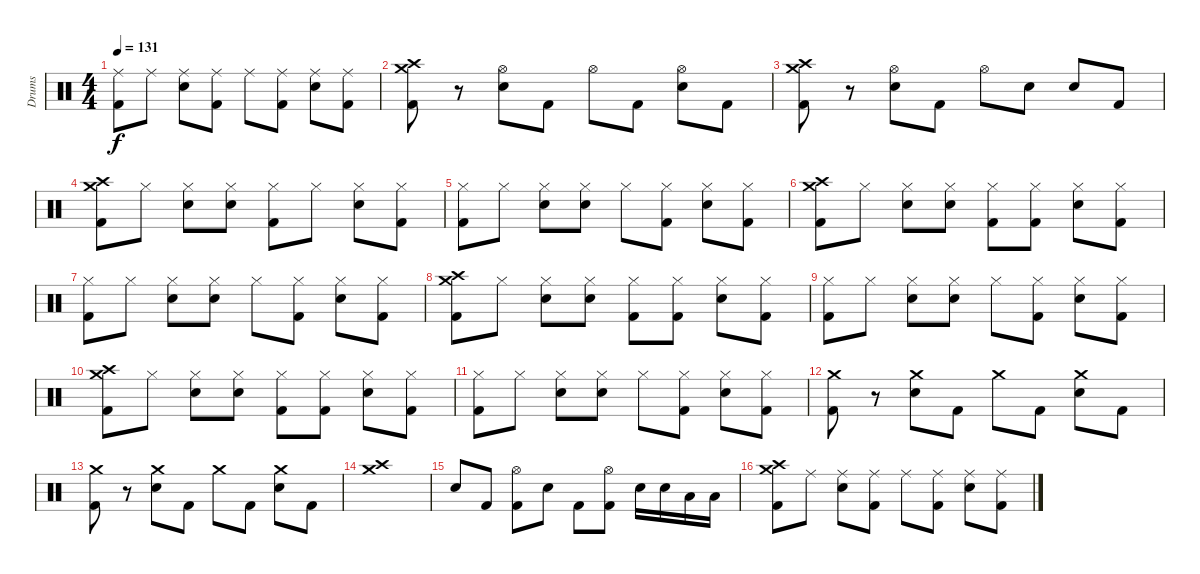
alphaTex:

\track ("Drums" "Drums") {instrument percussion}
\staff {score}
\articulation defaults
\ts (4 4)
\tempo 131
\clef neutral
\ks c
("Ride (middle)" "Kick (hit) 2").8{dy f} "Ride (middle)".8 ("Ride (middle)" "Snare (hit) 2").8 ("Ride (middle)" "Kick (hit) 2").8 "Ride (middle)".8 ("Ride (middle)" "Kick (hit) 2").8 ("Ride (middle)" "Snare (hit) 2").8 ("Ride (middle)" "Kick (hit) 2").8 |
("Crash high (hit)" "Crash medium (hit)" "Kick (hit) 2").8 r.8 ("Hi-Hat (open)" "Snare (hit) 2").8 "Kick (hit) 2".8 "Hi-Hat (open)".8 "Kick (hit) 2".8 ("Hi-Hat (open)" "Snare (hit) 2").8 "Kick (hit) 2".8 |
("Crash high (hit)" "Crash medium (hit)" "Kick (hit) 2").8 r.8 ("Hi-Hat (open)" "Snare (hit) 2").8 "Kick (hit) 2".8 "Hi-Hat (open)".8 "Snare (hit) 2".8 "Snare (hit) 2".8 "Kick (hit) 2".8 |
("Crash high (hit)" "Crash medium (hit)" "Kick (hit) 2").8 "Hi-Hat (closed)".8 ("Hi-Hat (closed)" "Snare (hit) 2").8 ("Hi-Hat (closed)" "Snare (hit) 2").8 ("Hi-Hat (closed)" "Kick (hit) 2").8 "Hi-Hat (closed)".8 ("Hi-Hat (closed)" "Snare (hit) 2").8 ("Hi-Hat (closed)" "Kick (hit) 2").8 |
("Hi-Hat (closed)" "Kick (hit) 2").8 "Hi-Hat (closed)".8 ("Hi-Hat (closed)" "Snare (hit) 2").8 ("Hi-Hat (closed)" "Snare (hit) 2").8 "Hi-Hat (closed)".8 ("Hi-Hat (closed)" "Kick (hit) 2").8 ("Hi-Hat (closed)" "Snare (hit) 2").8 ("Hi-Hat (closed)" "Kick (hit) 2").8 |
("Crash high (hit)" "Crash medium (hit)" "Kick (hit) 2").8 "Hi-Hat (closed)".8 ("Hi-Hat (closed)" "Snare (hit) 2").8 ("Hi-Hat (closed)" "Snare (hit) 2").8 ("Hi-Hat (closed)" "Kick (hit) 2").8 ("Hi-Hat (closed)" "Kick (hit) 2").8 ("Hi-Hat (closed)" "Snare (hit) 2").8 ("Hi-Hat (closed)" "Kick (hit) 2").8 |
("Hi-Hat (closed)" "Kick (hit) 2").8 "Hi-Hat (closed)".8 ("Hi-Hat (closed)" "Snare (hit) 2").8 ("Hi-Hat (closed)" "Snare (hit) 2").8 "Hi-Hat (closed)".8 ("Hi-Hat (closed)" "Kick (hit) 2").8 ("Hi-Hat (closed)" "Snare (hit) 2").8 ("Hi-Hat (closed)" "Kick (hit) 2").8 |
("Crash high (hit)" "Crash medium (hit)" "Kick (hit) 2").8 "Hi-Hat (closed)".8 ("Hi-Hat (closed)" "Snare (hit) 2").8 ("Hi-Hat (closed)" "Snare (hit) 2").8 ("Hi-Hat (closed)" "Kick (hit) 2").8 ("Hi-Hat (closed)" "Kick (hit) 2").8 ("Hi-Hat (closed)" "Snare (hit) 2").8 ("Hi-Hat (closed)" "Kick (hit) 2").8 |
("Hi-Hat (closed)" "Kick (hit) 2").8 "Hi-Hat (closed)".8 ("Hi-Hat (closed)" "Snare (hit) 2").8 ("Hi-Hat (closed)" "Snare (hit) 2").8 "Hi-Hat (closed)".8 ("Hi-Hat (closed)" "Kick (hit) 2").8 ("Hi-Hat (closed)" "Snare (hit) 2").8 ("Hi-Hat (closed)" "Kick (hit) 2").8 |
("Crash high (hit)" "Crash medium (hit)" "Kick (hit) 2").8 "Hi-Hat (closed)".8 ("Hi-Hat (closed)" "Snare (hit) 2").8 ("Hi-Hat (closed)" "Snare (hit) 2").8 ("Hi-Hat (closed)" "Kick (hit) 2").8 ("Hi-Hat (closed)" "Kick (hit) 2").8 ("Hi-Hat (closed)" "Snare (hit) 2").8 ("Hi-Hat (closed)" "Kick (hit) 2").8 |
("Hi-Hat (closed)" "Kick (hit) 2").8 "Hi-Hat (closed)".8 ("Hi-Hat (closed)" "Snare (hit) 2").8 ("Hi-Hat (closed)" "Snare (hit) 2").8 "Hi-Hat (closed)".8 ("Hi-Hat (closed)" "Kick (hit) 2").8 ("Hi-Hat (closed)" "Snare (hit) 2").8 ("Hi-Hat (closed)" "Kick (hit) 2").8 |
("Crash medium (hit)" "Kick (hit) 2").8 r.8 ("Crash medium (hit)" "Snare (hit) 2").8 "Kick (hit) 2".8 "Crash medium (hit)".8 "Kick (hit) 2".8 ("Crash medium (hit)" "Snare (hit) 2").8 "Kick (hit) 2".8 |
("Crash medium (hit)" "Kick (hit) 2").8 r.8 ("Crash medium (hit)" "Snare (hit) 2").8 "Kick (hit) 2".8 "Crash medium (hit)".8 "Kick (hit) 2".8 ("Crash medium (hit)" "Snare (hit) 2").8 "Kick (hit) 2".8 |
("Crash high (hit)" "Crash medium (hit)").1 |
"Snare (hit) 2".8 "Kick (hit) 2".8 ("Hi-Hat (open)" "Kick (hit) 2").8 "Snare (hit) 2".8 "Kick (hit) 2".8 ("Hi-Hat (open)" "Kick (hit) 2").8 "Snare (hit) 2".16 "Snare (hit) 2".16 "Low Tom (hit)".16 "Low Tom (hit)".16 |
("Crash high (hit)" "Crash medium (hit)" "Kick (hit) 2").8 "Ride (middle)".8 ("Ride (middle)" "Snare (hit) 2").8 ("Ride (middle)" "Kick (hit) 2").8 "Ride (middle)".8 ("Ride (middle)" "Kick (hit) 2").8 ("Ride (middle)" "Snare (hit) 2").8 ("Ride (middle)" "Kick (hit) 2").8
